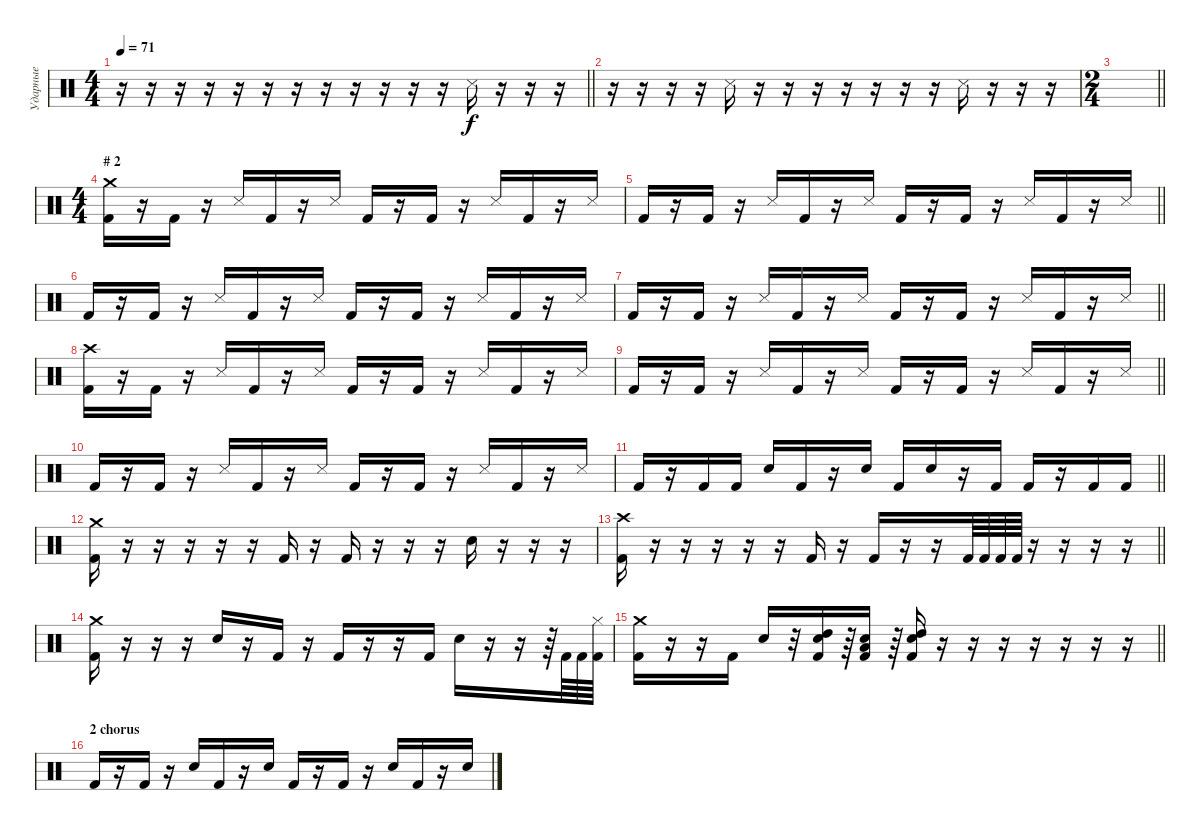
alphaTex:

\track ("Ударные" "Ударные") {instrument percussion}
\staff
\articulation defaults
\ts (4 4)
\tempo 71
\clef neutral
\barLineRight lightlight
\ks c
r.16{dy f} r.16 r.16 r.16 r.16 r.16 r.16 r.16 r.16 r.16 r.16 r.16 "Snare (side stick) 3".16 r.16 r.16 r.16 |
r.16 r.16 r.16 r.16 "Snare (side stick) 3".16 r.16 r.16 r.16 r.16 r.16 r.16 r.16 "Snare (side stick) 3".16 r.16 r.16 r.16 |
\ts (2 4)
\barLineRight lightlight
|
\ts (4 4)
\section ("" "# 2")
("Kick (hit) 2" "Crash medium (hit)").16 r.16 "Kick (hit) 2".16 r.16 "Snare (side stick) 3".16 "Kick (hit) 2".16 r.16 "Snare (side stick) 3".16 "Kick (hit) 2".16 r.16 "Kick (hit) 2".16 r.16 "Snare (side stick) 3".16 "Kick (hit) 2".16 r.16 "Snare (side stick) 3".16 |
\barLineRight lightlight "Kick (hit) 2".16
r.16 "Kick (hit) 2".16 r.16 "Snare (side stick) 3".16 "Kick (hit) 2".16 r.16 "Snare (side stick) 3".16 "Kick (hit) 2".16 r.16 "Kick (hit) 2".16 r.16 "Snare (side stick) 3".16 "Kick (hit) 2".16 r.16 "Snare (side stick) 3".16 |
"Kick (hit) 2".16 r.16 "Kick (hit) 2".16 r.16 "Snare (side stick) 3".16 "Kick (hit) 2".16 r.16 "Snare (side stick) 3".16 "Kick (hit) 2".16 r.16 "Kick (hit) 2".16 r.16 "Snare (side stick) 3".16 "Kick (hit) 2".16 r.16 "Snare (side stick) 3".16 |
\barLineRight lightlight "Kick (hit) 2".16
r.16 "Kick (hit) 2".16 r.16 "Snare (side stick) 3".16 "Kick (hit) 2".16 r.16 "Snare (side stick) 3".16 "Kick (hit) 2".16 r.16 "Kick (hit) 2".16 r.16 "Snare (side stick) 3".16 "Kick (hit) 2".16 r.16 "Snare (side stick) 3".16 |
("Kick (hit) 2" "Crash high (hit)").16 r.16 "Kick (hit) 2".16 r.16 "Snare (side stick) 3".16 "Kick (hit) 2".16 r.16 "Snare (side stick) 3".16 "Kick (hit) 2".16 r.16 "Kick (hit) 2".16 r.16 "Snare (side stick) 3".16 "Kick (hit) 2".16 r.16 "Snare (side stick) 3".16 |
\barLineRight lightlight "Kick (hit) 2".16
r.16 "Kick (hit) 2".16 r.16 "Snare (side stick) 3".16 "Kick (hit) 2".16 r.16 "Snare (side stick) 3".16 "Kick (hit) 2".16 r.16 "Kick (hit) 2".16 r.16 "Snare (side stick) 3".16 "Kick (hit) 2".16 r.16 "Snare (side stick) 3".16 |
"Kick (hit) 2".16 r.16 "Kick (hit) 2".16 r.16 "Snare (side stick) 3".16 "Kick (hit) 2".16 r.16 "Snare (side stick) 3".16 "Kick (hit) 2".16 r.16 "Kick (hit) 2".16 r.16 "Snare (side stick) 3".16 "Kick (hit) 2".16 r.16 "Snare (side stick) 3".16 |
\barLineRight lightlight "Kick (hit) 2".16
r.16 "Kick (hit) 2".16 "Kick (hit) 2".16 "Snare (hit) 2".16 "Kick (hit) 2".16 r.16 "Snare (hit) 2".16 "Kick (hit) 2".16 "Snare (hit) 2".16 r.16 "Kick (hit) 2".16 "Kick (hit) 2".16 r.16 "Kick (hit) 2".16 "Kick (hit) 2".16 |
("Kick (hit) 2" "Crash medium (hit)").16 r.16 r.16 r.16 r.16 r.16 "Kick (hit) 2".16 r.16 "Kick (hit) 2".16 r.16 r.16 r.16 "Snare (hit) 2".16 r.16 r.16 r.16 |
\barLineRight lightlight
("Kick (hit) 2" "Crash high (hit)").16 r.16 r.16 r.16 r.16 r.16 "Kick (hit) 2".16 r.16 "Kick (hit) 2".16 r.16 r.16 "Kick (hit) 2".64 "Kick (hit) 2".64 "Kick (hit) 2".64 "Kick (hit) 2".64 r.16 r.16 r.16 r.16 |
("Kick (hit) 2" "Crash medium (hit)").16 r.16 r.16 r.16 "Snare (hit) 2".16 r.16 "Kick (hit) 2".16 r.16 "Kick (hit) 2".16 r.16 r.16 "Kick (hit) 2".16 "Snare (hit) 2".16 r.16 r.16 r.64 "Kick (hit) 2".64 "Kick (hit) 2".64 ("Kick (hit) 2" "Hi-Hat (closed)").64 |
\barLineRight lightlight
("Kick (hit) 2" "Crash medium (hit)").16 r.16 r.16 "Kick (hit) 2".16 "Snare (hit) 2".16 r.32 ("Kick (hit) 2" "High Tom (hit)" "Snare (hit) 2").16 r.64 ("Kick (hit) 2" "Low Tom (hit)" "Snare (hit) 2").16 r.64 ("Kick (hit) 2" "High Tom (hit)" "Snare (hit) 2").16 r.16 r.16 r.16 r.16 r.16 r.16 r.16 |
\section ("" "2 chorus")
"Kick (hit) 2".16 r.16 "Kick (hit) 2".16 r.16 "Snare (hit) 2".16 "Kick (hit) 2".16 r.16 "Snare (hit) 2".16 "Kick (hit) 2".16 r.16 "Kick (hit) 2".16 r.16 "Snare (hit) 2".16 "Kick (hit) 2".16 r.16 "Snare (hit) 2".16
